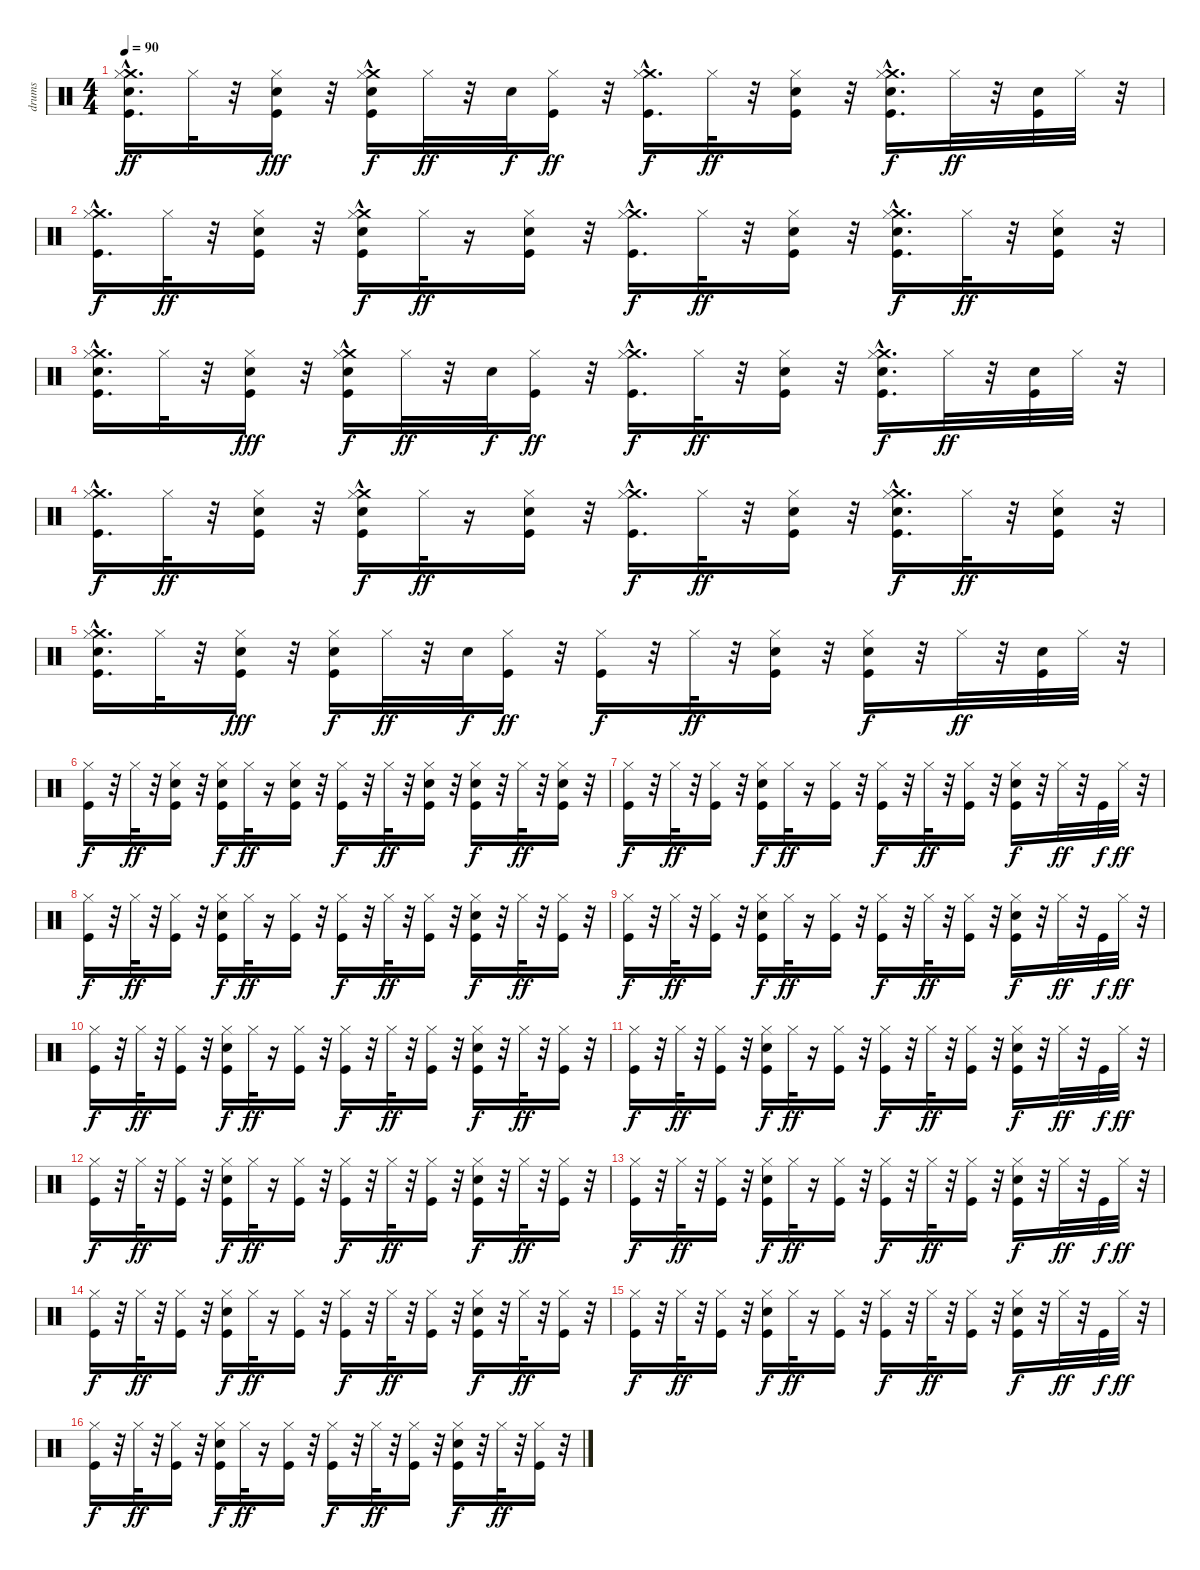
\track ("drums" "drums") {instrument percussion}
\staff {score}
\articulation defaults
\ts (4 4)
\tempo 90
\clef neutral
\ks c
("Kick (hit)" "Crash medium (hit)"{hac} "Hi-Hat (closed)" "Snare (hit)"{hac}).16{d dy ff} "Hi-Hat (closed)".32 r.32 ("Kick (hit)" "Hi-Hat (closed)" "Snare (hit)").16{dy fff} r.32 ("Kick (hit)" "Crash medium (hit)"{hac} "Electric Snare (hit)" "Hi-Hat (closed)").16{dy f} "Hi-Hat (closed)".32{dy ff} r.32 "Snare (hit)".32{dy f} ("Kick (hit)" "Hi-Hat (closed)").16{dy ff} r.32 ("Kick (hit)" "Crash medium (hit)"{hac} "Hi-Hat (closed)").16{d dy f} "Hi-Hat (closed)".32{dy ff} r.32 ("Kick (hit)" "Snare (hit)" "Hi-Hat (closed)").16 r.32 ("Kick (hit)" "Crash medium (hit)"{hac} "Electric Snare (hit)" "Hi-Hat (closed)").16{d dy f} "Hi-Hat (closed)".32{dy ff} r.32 ("Kick (hit)" "Snare (hit)").32 "Hi-Hat (closed)".32 r.32 |
("Kick (hit)" "Crash medium (hit)"{hac} "Hi-Hat (closed)").16{d dy f} "Hi-Hat (closed)".32{dy ff} r.32 ("Kick (hit)" "Snare (hit)" "Hi-Hat (closed)").16 r.32 ("Kick (hit)" "Crash medium (hit)"{hac} "Electric Snare (hit)" "Hi-Hat (closed)").16{dy f} "Hi-Hat (closed)".32{dy ff} r.16 ("Kick (hit)" "Hi-Hat (closed)" "Snare (hit)").16 r.32 ("Kick (hit)" "Crash medium (hit)"{hac} "Hi-Hat (closed)").16{d dy f} "Hi-Hat (closed)".32{dy ff} r.32 ("Snare (hit)" "Kick (hit)" "Hi-Hat (closed)").16 r.32 ("Kick (hit)" "Crash medium (hit)"{hac} "Electric Snare (hit)" "Hi-Hat (closed)").16{d dy f} "Hi-Hat (closed)".32{dy ff} r.32 ("Kick (hit)" "Snare (hit)" "Hi-Hat (closed)").16 r.32 |
("Kick (hit)" "Crash medium (hit)"{hac} "Hi-Hat (closed)" "Snare (hit)"{hac}).16{d} "Hi-Hat (closed)".32 r.32 ("Kick (hit)" "Hi-Hat (closed)" "Snare (hit)").16{dy fff} r.32 ("Kick (hit)" "Crash medium (hit)"{hac} "Electric Snare (hit)" "Hi-Hat (closed)").16{dy f} "Hi-Hat (closed)".32{dy ff} r.32 "Snare (hit)".32{dy f} ("Kick (hit)" "Hi-Hat (closed)").16{dy ff} r.32 ("Kick (hit)" "Crash medium (hit)"{hac} "Hi-Hat (closed)").16{d dy f} "Hi-Hat (closed)".32{dy ff} r.32 ("Kick (hit)" "Snare (hit)" "Hi-Hat (closed)").16 r.32 ("Kick (hit)" "Crash medium (hit)"{hac} "Electric Snare (hit)" "Hi-Hat (closed)").16{d dy f} "Hi-Hat (closed)".32{dy ff} r.32 ("Kick (hit)" "Snare (hit)").32 "Hi-Hat (closed)".32 r.32 |
("Kick (hit)" "Crash medium (hit)"{hac} "Hi-Hat (closed)").16{d dy f} "Hi-Hat (closed)".32{dy ff} r.32 ("Kick (hit)" "Snare (hit)" "Hi-Hat (closed)").16 r.32 ("Kick (hit)" "Crash medium (hit)"{hac} "Electric Snare (hit)" "Hi-Hat (closed)").16{dy f} "Hi-Hat (closed)".32{dy ff} r.16 ("Kick (hit)" "Hi-Hat (closed)" "Snare (hit)").16 r.32 ("Kick (hit)" "Crash medium (hit)"{hac} "Hi-Hat (closed)").16{d dy f} "Hi-Hat (closed)".32{dy ff} r.32 ("Snare (hit)" "Kick (hit)" "Hi-Hat (closed)").16 r.32 ("Kick (hit)" "Crash medium (hit)"{hac} "Electric Snare (hit)" "Hi-Hat (closed)").16{d dy f} "Hi-Hat (closed)".32{dy ff} r.32 ("Kick (hit)" "Snare (hit)" "Hi-Hat (closed)").16 r.32 |
("Kick (hit)" "Crash medium (hit)"{hac} "Hi-Hat (closed)" "Snare (hit)"{hac}).16{d} "Hi-Hat (closed)".32 r.32 ("Kick (hit)" "Hi-Hat (closed)" "Snare (hit)").16{dy fff} r.32 ("Kick (hit)" "Electric Snare (hit)" "Hi-Hat (closed)").16{dy f} "Hi-Hat (closed)".32{dy ff} r.32 "Snare (hit)".32{dy f} ("Kick (hit)" "Hi-Hat (closed)").16{dy ff} r.32 ("Kick (hit)" "Hi-Hat (closed)").16{dy f} r.32 "Hi-Hat (closed)".32{dy ff} r.32 ("Kick (hit)" "Snare (hit)" "Hi-Hat (closed)").16 r.32 ("Kick (hit)" "Electric Snare (hit)" "Hi-Hat (closed)").16{dy f} r.32 "Hi-Hat (closed)".32{dy ff} r.32 ("Kick (hit)" "Snare (hit)").32 "Hi-Hat (closed)".32 r.32 |
("Kick (hit)" "Hi-Hat (closed)").16{dy f} r.32 "Hi-Hat (closed)".32{dy ff} r.32 ("Kick (hit)" "Snare (hit)" "Hi-Hat (closed)").16 r.32 ("Kick (hit)" "Electric Snare (hit)" "Hi-Hat (closed)").16{dy f} "Hi-Hat (closed)".32{dy ff} r.16 ("Kick (hit)" "Hi-Hat (closed)" "Snare (hit)").16 r.32 ("Kick (hit)" "Hi-Hat (closed)").16{dy f} r.32 "Hi-Hat (closed)".32{dy ff} r.32 ("Snare (hit)" "Kick (hit)" "Hi-Hat (closed)").16 r.32 ("Kick (hit)" "Electric Snare (hit)" "Hi-Hat (closed)").16{dy f} r.32 "Hi-Hat (closed)".32{dy ff} r.32 ("Kick (hit)" "Snare (hit)" "Hi-Hat (closed)").16 r.32 |
("Kick (hit)" "Hi-Hat (closed)").16{dy f} r.32 "Hi-Hat (closed)".32{dy ff} r.32 ("Kick (hit)" "Hi-Hat (closed)").16 r.32 ("Kick (hit)" "Electric Snare (hit)" "Hi-Hat (closed)").16{dy f} "Hi-Hat (closed)".32{dy ff} r.16 ("Kick (hit)" "Hi-Hat (closed)").16 r.32 ("Kick (hit)" "Hi-Hat (closed)").16{dy f} r.32 "Hi-Hat (closed)".32{dy ff} r.32 ("Kick (hit)" "Hi-Hat (closed)").16 r.32 ("Kick (hit)" "Electric Snare (hit)" "Hi-Hat (closed)").16{dy f} r.32 "Hi-Hat (closed)".32{dy ff} r.32 "Kick (hit)".32{dy f} "Hi-Hat (closed)".32{dy ff} r.32 |
("Kick (hit)" "Hi-Hat (closed)").16{dy f} r.32 "Hi-Hat (closed)".32{dy ff} r.32 ("Kick (hit)" "Hi-Hat (closed)").16 r.32 ("Kick (hit)" "Electric Snare (hit)" "Hi-Hat (closed)").16{dy f} "Hi-Hat (closed)".32{dy ff} r.16 ("Kick (hit)" "Hi-Hat (closed)").16 r.32 ("Kick (hit)" "Hi-Hat (closed)").16{dy f} r.32 "Hi-Hat (closed)".32{dy ff} r.32 ("Kick (hit)" "Hi-Hat (closed)").16 r.32 ("Kick (hit)" "Electric Snare (hit)" "Hi-Hat (closed)").16{dy f} r.32 "Hi-Hat (closed)".32{dy ff} r.32 ("Kick (hit)" "Hi-Hat (closed)").16 r.32 |
("Kick (hit)" "Hi-Hat (closed)").16{dy f} r.32 "Hi-Hat (closed)".32{dy ff} r.32 ("Kick (hit)" "Hi-Hat (closed)").16 r.32 ("Kick (hit)" "Electric Snare (hit)" "Hi-Hat (closed)").16{dy f} "Hi-Hat (closed)".32{dy ff} r.16 ("Kick (hit)" "Hi-Hat (closed)").16 r.32 ("Kick (hit)" "Hi-Hat (closed)").16{dy f} r.32 "Hi-Hat (closed)".32{dy ff} r.32 ("Kick (hit)" "Hi-Hat (closed)").16 r.32 ("Kick (hit)" "Electric Snare (hit)" "Hi-Hat (closed)").16{dy f} r.32 "Hi-Hat (closed)".32{dy ff} r.32 "Kick (hit)".32{dy f} "Hi-Hat (closed)".32{dy ff} r.32 |
("Kick (hit)" "Hi-Hat (closed)").16{dy f} r.32 "Hi-Hat (closed)".32{dy ff} r.32 ("Kick (hit)" "Hi-Hat (closed)").16 r.32 ("Kick (hit)" "Electric Snare (hit)" "Hi-Hat (closed)").16{dy f} "Hi-Hat (closed)".32{dy ff} r.16 ("Kick (hit)" "Hi-Hat (closed)").16 r.32 ("Kick (hit)" "Hi-Hat (closed)").16{dy f} r.32 "Hi-Hat (closed)".32{dy ff} r.32 ("Kick (hit)" "Hi-Hat (closed)").16 r.32 ("Kick (hit)" "Electric Snare (hit)" "Hi-Hat (closed)").16{dy f} r.32 "Hi-Hat (closed)".32{dy ff} r.32 ("Kick (hit)" "Hi-Hat (closed)").16 r.32 |
("Kick (hit)" "Hi-Hat (closed)").16{dy f} r.32 "Hi-Hat (closed)".32{dy ff} r.32 ("Kick (hit)" "Hi-Hat (closed)").16 r.32 ("Kick (hit)" "Electric Snare (hit)" "Hi-Hat (closed)").16{dy f} "Hi-Hat (closed)".32{dy ff} r.16 ("Kick (hit)" "Hi-Hat (closed)").16 r.32 ("Kick (hit)" "Hi-Hat (closed)").16{dy f} r.32 "Hi-Hat (closed)".32{dy ff} r.32 ("Kick (hit)" "Hi-Hat (closed)").16 r.32 ("Kick (hit)" "Electric Snare (hit)" "Hi-Hat (closed)").16{dy f} r.32 "Hi-Hat (closed)".32{dy ff} r.32 "Kick (hit)".32{dy f} "Hi-Hat (closed)".32{dy ff} r.32 |
("Kick (hit)" "Hi-Hat (closed)").16{dy f} r.32 "Hi-Hat (closed)".32{dy ff} r.32 ("Kick (hit)" "Hi-Hat (closed)").16 r.32 ("Kick (hit)" "Electric Snare (hit)" "Hi-Hat (closed)").16{dy f} "Hi-Hat (closed)".32{dy ff} r.16 ("Kick (hit)" "Hi-Hat (closed)").16 r.32 ("Kick (hit)" "Hi-Hat (closed)").16{dy f} r.32 "Hi-Hat (closed)".32{dy ff} r.32 ("Kick (hit)" "Hi-Hat (closed)").16 r.32 ("Kick (hit)" "Electric Snare (hit)" "Hi-Hat (closed)").16{dy f} r.32 "Hi-Hat (closed)".32{dy ff} r.32 ("Kick (hit)" "Hi-Hat (closed)").16 r.32 |
("Kick (hit)" "Hi-Hat (closed)").16{dy f} r.32 "Hi-Hat (closed)".32{dy ff} r.32 ("Kick (hit)" "Hi-Hat (closed)").16 r.32 ("Kick (hit)" "Electric Snare (hit)" "Hi-Hat (closed)").16{dy f} "Hi-Hat (closed)".32{dy ff} r.16 ("Kick (hit)" "Hi-Hat (closed)").16 r.32 ("Kick (hit)" "Hi-Hat (closed)").16{dy f} r.32 "Hi-Hat (closed)".32{dy ff} r.32 ("Kick (hit)" "Hi-Hat (closed)").16 r.32 ("Kick (hit)" "Electric Snare (hit)" "Hi-Hat (closed)").16{dy f} r.32 "Hi-Hat (closed)".32{dy ff} r.32 "Kick (hit)".32{dy f} "Hi-Hat (closed)".32{dy ff} r.32 |
("Kick (hit)" "Hi-Hat (closed)").16{dy f} r.32 "Hi-Hat (closed)".32{dy ff} r.32 ("Kick (hit)" "Hi-Hat (closed)").16 r.32 ("Kick (hit)" "Electric Snare (hit)" "Hi-Hat (closed)").16{dy f} "Hi-Hat (closed)".32{dy ff} r.16 ("Kick (hit)" "Hi-Hat (closed)").16 r.32 ("Kick (hit)" "Hi-Hat (closed)").16{dy f} r.32 "Hi-Hat (closed)".32{dy ff} r.32 ("Kick (hit)" "Hi-Hat (closed)").16 r.32 ("Kick (hit)" "Electric Snare (hit)" "Hi-Hat (closed)").16{dy f} r.32 "Hi-Hat (closed)".32{dy ff} r.32 ("Kick (hit)" "Hi-Hat (closed)").16 r.32 |
("Kick (hit)" "Hi-Hat (closed)").16{dy f} r.32 "Hi-Hat (closed)".32{dy ff} r.32 ("Kick (hit)" "Hi-Hat (closed)").16 r.32 ("Kick (hit)" "Electric Snare (hit)" "Hi-Hat (closed)").16{dy f} "Hi-Hat (closed)".32{dy ff} r.16 ("Kick (hit)" "Hi-Hat (closed)").16 r.32 ("Kick (hit)" "Hi-Hat (closed)").16{dy f} r.32 "Hi-Hat (closed)".32{dy ff} r.32 ("Kick (hit)" "Hi-Hat (closed)").16 r.32 ("Kick (hit)" "Electric Snare (hit)" "Hi-Hat (closed)").16{dy f} r.32 "Hi-Hat (closed)".32{dy ff} r.32 "Kick (hit)".32{dy f} "Hi-Hat (closed)".32{dy ff} r.32 |
("Kick (hit)" "Hi-Hat (closed)").16{dy f} r.32 "Hi-Hat (closed)".32{dy ff} r.32 ("Kick (hit)" "Hi-Hat (closed)").16 r.32 ("Kick (hit)" "Electric Snare (hit)" "Hi-Hat (closed)").16{dy f} "Hi-Hat (closed)".32{dy ff} r.16 ("Kick (hit)" "Hi-Hat (closed)").16 r.32 ("Kick (hit)" "Hi-Hat (closed)").16{dy f} r.32 "Hi-Hat (closed)".32{dy ff} r.32 ("Kick (hit)" "Hi-Hat (closed)").16 r.32 ("Kick (hit)" "Electric Snare (hit)" "Hi-Hat (closed)").16{dy f} r.32 "Hi-Hat (closed)".32{dy ff} r.32 ("Kick (hit)" "Hi-Hat (closed)").16 r.32
